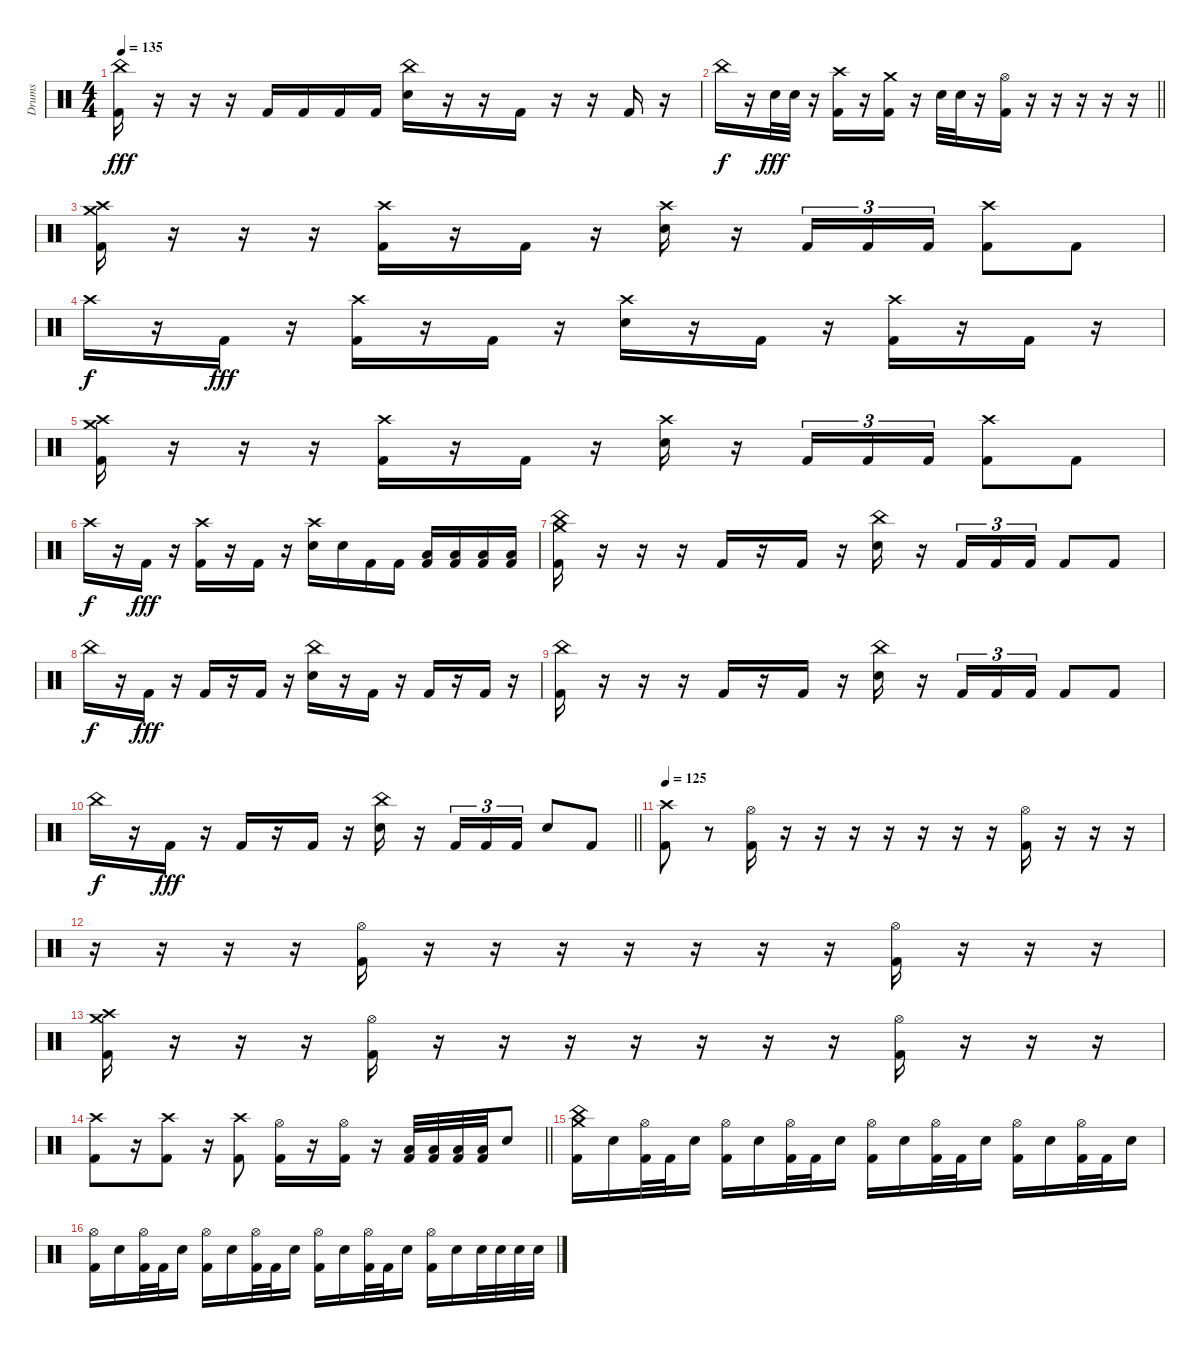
\track ("Drums" "Drums") {instrument percussion}
\staff {score}
\articulation defaults
\ts (4 4)
\tempo 135
\clef neutral
\ks c
("China (hit)" "Kick (hit) 2").16{dy fff} r.16 r.16 r.16 "Kick (hit) 2".16 "Kick (hit) 2".16 "Kick (hit) 2".16 "Kick (hit) 2".16 ("China (hit)" "Electric Snare (hit)").16 r.16 r.16 "Kick (hit) 2".16 r.16 r.16 "Kick (hit) 2".16 r.16 |
\barLineRight lightlight "China (hit)".16{dy f}
r.16 "Electric Snare (hit)".32{dy fff} "Electric Snare (hit)".32 r.16 ("Crash high (hit)" "Kick (hit) 2").16 r.16 ("Crash medium (hit)" "Kick (hit) 2").16 r.16 "Electric Snare (hit)".32 "Electric Snare (hit)".32 r.16 ("Hi-Hat (open)" "Kick (hit) 2").16 r.16 r.16 r.16 r.16 r.16 |
\section ("" "")
("Crash high (hit)" "Crash medium (hit)" "Kick (hit) 2").16 r.16 r.16 r.16 ("Crash high (hit)" "Kick (hit) 2").16 r.16 "Kick (hit) 2".16 r.16 ("Crash high (hit)" "Electric Snare (hit)").16 r.16 "Kick (hit) 2".16{tu (3 2)} "Kick (hit) 2".16{tu (3 2)} "Kick (hit) 2".16{tu (3 2)} ("Crash high (hit)" "Kick (hit) 2").8 "Kick (hit) 2".8 |
"Crash high (hit)".16{dy f} r.16 "Kick (hit) 2".16{dy fff} r.16 ("Crash high (hit)" "Kick (hit) 2").16 r.16 "Kick (hit) 2".16 r.16 ("Crash high (hit)" "Electric Snare (hit)").16 r.16 "Kick (hit) 2".16 r.16 ("Crash high (hit)" "Kick (hit) 2").16 r.16 "Kick (hit) 2".16 r.16 |
("Crash high (hit)" "Crash medium (hit)" "Kick (hit) 2").16 r.16 r.16 r.16 ("Crash high (hit)" "Kick (hit) 2").16 r.16 "Kick (hit) 2".16 r.16 ("Crash high (hit)" "Electric Snare (hit)").16 r.16 "Kick (hit) 2".16{tu (3 2)} "Kick (hit) 2".16{tu (3 2)} "Kick (hit) 2".16{tu (3 2)} ("Crash high (hit)" "Kick (hit) 2").8 "Kick (hit) 2".8 |
"Crash high (hit)".16{dy f} r.16 "Kick (hit) 2".16{dy fff} r.16 ("Crash high (hit)" "Kick (hit) 2").16 r.16 "Kick (hit) 2".16 r.16 ("Crash high (hit)" "Electric Snare (hit)").16 "Electric Snare (hit)".16 "Kick (hit) 2".16 "Kick (hit) 2".16 ("Low Tom (hit)" "Kick (hit) 2").16 ("Low Tom (hit)" "Kick (hit) 2").16 ("Low Floor Tom (hit)" "Kick (hit) 2").16 ("Low Floor Tom (hit)" "Kick (hit) 2").16 |
("China (hit)" "Crash medium (hit)" "Kick (hit) 2").16 r.16 r.16 r.16 "Kick (hit) 2".16 r.16 "Kick (hit) 2".16 r.16 ("China (hit)" "Electric Snare (hit)").16 r.16 "Kick (hit) 2".16{tu (3 2)} "Kick (hit) 2".16{tu (3 2)} "Kick (hit) 2".16{tu (3 2)} "Kick (hit) 2".8 "Kick (hit) 2".8 |
"China (hit)".16{dy f} r.16 "Kick (hit) 2".16{dy fff} r.16 "Kick (hit) 2".16 r.16 "Kick (hit) 2".16 r.16 ("China (hit)" "Electric Snare (hit)").16 r.16 "Kick (hit) 2".16 r.16 "Kick (hit) 2".16 r.16 "Kick (hit) 2".16 r.16 |
("China (hit)" "Kick (hit) 2").16 r.16 r.16 r.16 "Kick (hit) 2".16 r.16 "Kick (hit) 2".16 r.16 ("China (hit)" "Electric Snare (hit)").16 r.16 "Kick (hit) 2".16{tu (3 2)} "Kick (hit) 2".16{tu (3 2)} "Kick (hit) 2".16{tu (3 2)} "Kick (hit) 2".8 "Kick (hit) 2".8 |
\barLineRight lightlight "China (hit)".16{dy f}
r.16 "Kick (hit) 2".16{dy fff} r.16 "Kick (hit) 2".16 r.16 "Kick (hit) 2".16 r.16 ("China (hit)" "Electric Snare (hit)").16 r.16 "Kick (hit) 2".16{tu (3 2)} "Kick (hit) 2".16{tu (3 2)} "Kick (hit) 2".16{tu (3 2)} "Electric Snare (hit)".8 "Kick (hit) 2".8 |
\section ("" "")
\tempo 125
("Crash high (hit)" "Kick (hit) 2").8 r.8{volume 0} ("Hi-Hat (open)" "Kick (hit) 2").16{volume 13} r.16 r.16 r.16 r.16 r.16 r.16 r.16 ("Hi-Hat (open)" "Kick (hit) 2").16 r.16 r.16 r.16 |
r.16 r.16 r.16 r.16 ("Hi-Hat (open)" "Kick (hit) 2").16 r.16 r.16 r.16 r.16 r.16 r.16 r.16 ("Hi-Hat (open)" "Kick (hit) 2").16 r.16 r.16 r.16 |
("Crash high (hit)" "Crash medium (hit)" "Kick (hit) 2").16 r.16 r.16 r.16 ("Hi-Hat (open)" "Kick (hit) 2").16 r.16 r.16 r.16 r.16 r.16 r.16 r.16 ("Hi-Hat (open)" "Kick (hit) 2").16 r.16 r.16 r.16 |
\barLineRight lightlight
("Crash high (hit)" "Kick (hit) 2").8 r.16{volume 0} ("Crash high (hit)" "Kick (hit) 2").8{volume 13} r.16{volume 0} ("Crash high (hit)" "Kick (hit) 2").8{volume 13} ("Hi-Hat (open)" "Kick (hit) 2").16 r.16 ("Hi-Hat (open)" "Kick (hit) 2").16 r.16 ("Low Tom (hit)" "Kick (hit) 2").32 ("Low Tom (hit)" "Kick (hit) 2").32 ("Low Tom (hit)" "Kick (hit) 2").32 ("Low Tom (hit)" "Kick (hit) 2").32 "Electric Snare (hit)".8 |
\section ("" "")
("Crash medium (hit)" "China (hit)" "Kick (hit) 2").16 "Electric Snare (hit)".16 ("Hi-Hat (open)" "Kick (hit) 2").32 "Kick (hit) 2".32 "Electric Snare (hit)".16 ("Hi-Hat (open)" "Kick (hit) 2").16 "Electric Snare (hit)".16 ("Hi-Hat (open)" "Kick (hit) 2").32 "Kick (hit) 2".32 "Electric Snare (hit)".16 ("Hi-Hat (open)" "Kick (hit) 2").16 "Electric Snare (hit)".16 ("Hi-Hat (open)" "Kick (hit) 2").32 "Kick (hit) 2".32 "Electric Snare (hit)".16 ("Hi-Hat (open)" "Kick (hit) 2").16 "Electric Snare (hit)".16 ("Hi-Hat (open)" "Kick (hit) 2").32 "Kick (hit) 2".32 "Electric Snare (hit)".16 |
("Hi-Hat (open)" "Kick (hit) 2").16 "Electric Snare (hit)".16 ("Hi-Hat (open)" "Kick (hit) 2").32 "Kick (hit) 2".32 "Electric Snare (hit)".16 ("Hi-Hat (open)" "Kick (hit) 2").16 "Electric Snare (hit)".16 ("Hi-Hat (open)" "Kick (hit) 2").32 "Kick (hit) 2".32 "Electric Snare (hit)".16 ("Hi-Hat (open)" "Kick (hit) 2").16 "Electric Snare (hit)".16 ("Hi-Hat (open)" "Kick (hit) 2").32 "Kick (hit) 2".32 "Electric Snare (hit)".16 ("Hi-Hat (open)" "Kick (hit) 2").16 "Electric Snare (hit)".16 "Electric Snare (hit)".32 "Electric Snare (hit)".32 "Electric Snare (hit)".32 "Electric Snare (hit)".32
